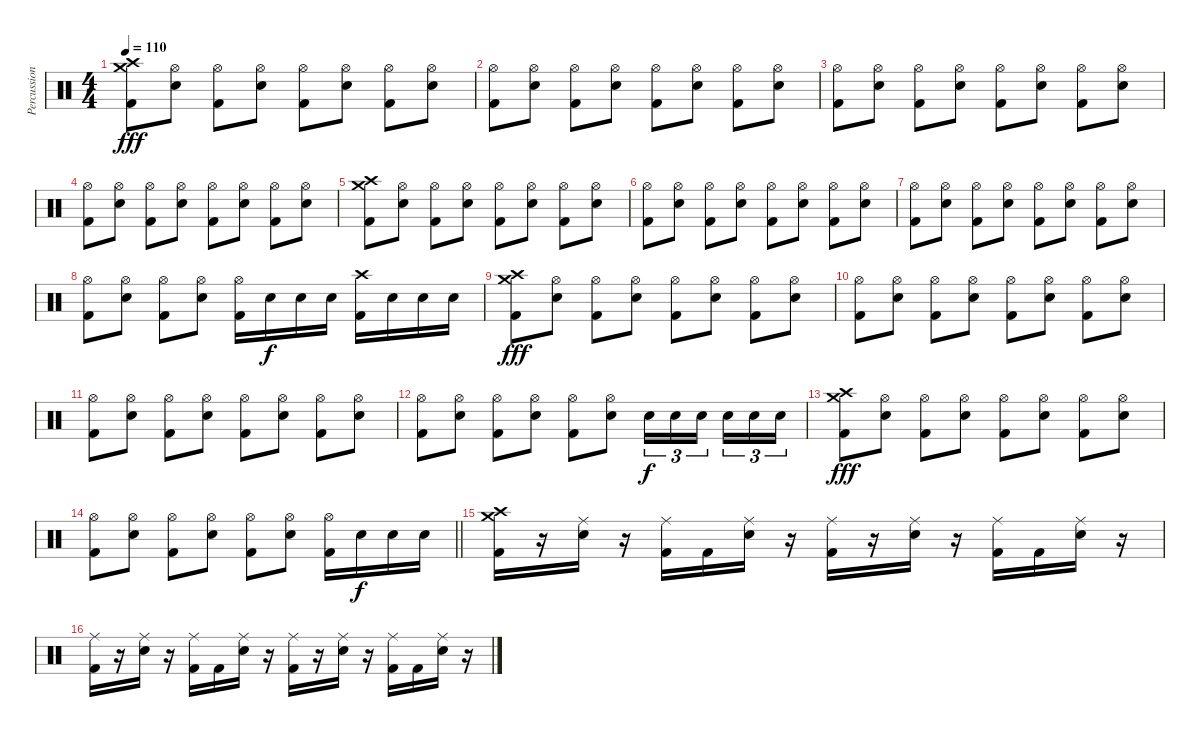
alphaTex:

\track ("Percussion" "Percussion") {instrument percussion}
\staff {score}
\articulation defaults
\ts (4 4)
\tempo 110
\clef neutral
\ks c
("Kick (hit) 2" "Crash medium (hit)" "Crash high (hit)").8{dy fff} ("Electric Snare (hit)" "Hi-Hat (open)").8 ("Kick (hit) 2" "Hi-Hat (open)").8 ("Electric Snare (hit)" "Hi-Hat (open)").8 ("Kick (hit) 2" "Hi-Hat (open)").8 ("Electric Snare (hit)" "Hi-Hat (open)").8 ("Kick (hit) 2" "Hi-Hat (open)").8 ("Electric Snare (hit)" "Hi-Hat (open)").8 |
("Kick (hit) 2" "Hi-Hat (open)").8 ("Electric Snare (hit)" "Hi-Hat (open)").8 ("Kick (hit) 2" "Hi-Hat (open)").8 ("Electric Snare (hit)" "Hi-Hat (open)").8 ("Kick (hit) 2" "Hi-Hat (open)").8 ("Electric Snare (hit)" "Hi-Hat (open)").8 ("Kick (hit) 2" "Hi-Hat (open)").8 ("Electric Snare (hit)" "Hi-Hat (open)").8 |
("Kick (hit) 2" "Hi-Hat (open)").8 ("Electric Snare (hit)" "Hi-Hat (open)").8 ("Kick (hit) 2" "Hi-Hat (open)").8 ("Electric Snare (hit)" "Hi-Hat (open)").8 ("Kick (hit) 2" "Hi-Hat (open)").8 ("Electric Snare (hit)" "Hi-Hat (open)").8 ("Kick (hit) 2" "Hi-Hat (open)").8 ("Electric Snare (hit)" "Hi-Hat (open)").8 |
("Kick (hit) 2" "Hi-Hat (open)").8 ("Electric Snare (hit)" "Hi-Hat (open)").8 ("Kick (hit) 2" "Hi-Hat (open)").8 ("Electric Snare (hit)" "Hi-Hat (open)").8 ("Kick (hit) 2" "Hi-Hat (open)").8 ("Electric Snare (hit)" "Hi-Hat (open)").8 ("Kick (hit) 2" "Hi-Hat (open)").8 ("Electric Snare (hit)" "Hi-Hat (open)").8 |
("Kick (hit) 2" "Crash medium (hit)" "Crash high (hit)").8 ("Electric Snare (hit)" "Hi-Hat (open)").8 ("Kick (hit) 2" "Hi-Hat (open)").8 ("Electric Snare (hit)" "Hi-Hat (open)").8 ("Kick (hit) 2" "Hi-Hat (open)").8 ("Electric Snare (hit)" "Hi-Hat (open)").8 ("Kick (hit) 2" "Hi-Hat (open)").8 ("Electric Snare (hit)" "Hi-Hat (open)").8 |
("Kick (hit) 2" "Hi-Hat (open)").8 ("Electric Snare (hit)" "Hi-Hat (open)").8 ("Kick (hit) 2" "Hi-Hat (open)").8 ("Electric Snare (hit)" "Hi-Hat (open)").8 ("Kick (hit) 2" "Hi-Hat (open)").8 ("Electric Snare (hit)" "Hi-Hat (open)").8 ("Kick (hit) 2" "Hi-Hat (open)").8 ("Electric Snare (hit)" "Hi-Hat (open)").8 |
("Kick (hit) 2" "Hi-Hat (open)").8 ("Electric Snare (hit)" "Hi-Hat (open)").8 ("Kick (hit) 2" "Hi-Hat (open)").8 ("Electric Snare (hit)" "Hi-Hat (open)").8 ("Kick (hit) 2" "Hi-Hat (open)").8 ("Electric Snare (hit)" "Hi-Hat (open)").8 ("Kick (hit) 2" "Hi-Hat (open)").8 ("Electric Snare (hit)" "Hi-Hat (open)").8 |
("Kick (hit) 2" "Hi-Hat (open)").8 ("Electric Snare (hit)" "Hi-Hat (open)").8 ("Kick (hit) 2" "Hi-Hat (open)").8 ("Electric Snare (hit)" "Hi-Hat (open)").8 ("Kick (hit) 2" "Hi-Hat (open)").16 "Electric Snare (hit)".16{dy f} "Electric Snare (hit)".16 "Electric Snare (hit)".16 ("Kick (hit) 2" "Crash high (hit)").16 "Electric Snare (hit)".16 "Electric Snare (hit)".16 "Electric Snare (hit)".16 |
("Kick (hit) 2" "Crash medium (hit)" "Crash high (hit)").8{dy fff} ("Electric Snare (hit)" "Hi-Hat (open)").8 ("Kick (hit) 2" "Hi-Hat (open)").8 ("Electric Snare (hit)" "Hi-Hat (open)").8 ("Kick (hit) 2" "Hi-Hat (open)").8 ("Electric Snare (hit)" "Hi-Hat (open)").8 ("Kick (hit) 2" "Hi-Hat (open)").8 ("Electric Snare (hit)" "Hi-Hat (open)").8 |
("Kick (hit) 2" "Hi-Hat (open)").8 ("Electric Snare (hit)" "Hi-Hat (open)").8 ("Kick (hit) 2" "Hi-Hat (open)").8 ("Electric Snare (hit)" "Hi-Hat (open)").8 ("Kick (hit) 2" "Hi-Hat (open)").8 ("Electric Snare (hit)" "Hi-Hat (open)").8 ("Kick (hit) 2" "Hi-Hat (open)").8 ("Electric Snare (hit)" "Hi-Hat (open)").8 |
("Kick (hit) 2" "Hi-Hat (open)").8 ("Electric Snare (hit)" "Hi-Hat (open)").8 ("Kick (hit) 2" "Hi-Hat (open)").8 ("Electric Snare (hit)" "Hi-Hat (open)").8 ("Kick (hit) 2" "Hi-Hat (open)").8 ("Electric Snare (hit)" "Hi-Hat (open)").8 ("Kick (hit) 2" "Hi-Hat (open)").8 ("Electric Snare (hit)" "Hi-Hat (open)").8 |
("Kick (hit) 2" "Hi-Hat (open)").8 ("Electric Snare (hit)" "Hi-Hat (open)").8 ("Kick (hit) 2" "Hi-Hat (open)").8 ("Electric Snare (hit)" "Hi-Hat (open)").8 ("Kick (hit) 2" "Hi-Hat (open)").8 ("Electric Snare (hit)" "Hi-Hat (open)").8 "Electric Snare (hit)".16{tu (3 2) dy f} "Electric Snare (hit)".16{tu (3 2)} "Electric Snare (hit)".16{tu (3 2) beam splitsecondary} "Electric Snare (hit)".16{tu (3 2)} "Electric Snare (hit)".16{tu (3 2)} "Electric Snare (hit)".16{tu (3 2)} |
("Kick (hit) 2" "Crash medium (hit)" "Crash high (hit)").8{dy fff} ("Electric Snare (hit)" "Hi-Hat (open)").8 ("Kick (hit) 2" "Hi-Hat (open)").8 ("Electric Snare (hit)" "Hi-Hat (open)").8 ("Kick (hit) 2" "Hi-Hat (open)").8 ("Electric Snare (hit)" "Hi-Hat (open)").8 ("Kick (hit) 2" "Hi-Hat (open)").8 ("Electric Snare (hit)" "Hi-Hat (open)").8 |
\barLineRight lightlight
("Kick (hit) 2" "Hi-Hat (open)").8 ("Electric Snare (hit)" "Hi-Hat (open)").8 ("Kick (hit) 2" "Hi-Hat (open)").8 ("Electric Snare (hit)" "Hi-Hat (open)").8 ("Kick (hit) 2" "Hi-Hat (open)").8 ("Electric Snare (hit)" "Hi-Hat (open)").8 ("Kick (hit) 2" "Hi-Hat (open)").16 "Electric Snare (hit)".16{dy f} "Electric Snare (hit)".16 "Electric Snare (hit)".16 |
("Crash medium (hit)" "Kick (hit) 2" "Crash high (hit)").16 r.16 ("Ride (middle)" "Electric Snare (hit)").16 r.16 ("Ride (middle)" "Kick (hit) 2").16 "Kick (hit) 2".16 ("Ride (middle)" "Electric Snare (hit)").16 r.16 ("Ride (middle)" "Kick (hit) 2").16 r.16 ("Ride (middle)" "Electric Snare (hit)").16 r.16 ("Ride (middle)" "Kick (hit) 2").16 "Kick (hit) 2".16 ("Ride (middle)" "Electric Snare (hit)").16 r.16 |
("Ride (middle)" "Kick (hit) 2").16 r.16 ("Ride (middle)" "Electric Snare (hit)").16 r.16 ("Ride (middle)" "Kick (hit) 2").16 "Kick (hit) 2".16 ("Ride (middle)" "Electric Snare (hit)").16 r.16 ("Ride (middle)" "Kick (hit) 2").16 r.16 ("Ride (middle)" "Electric Snare (hit)").16 r.16 ("Ride (middle)" "Kick (hit) 2").16 "Kick (hit) 2".16 ("Ride (middle)" "Electric Snare (hit)").16 r.16
